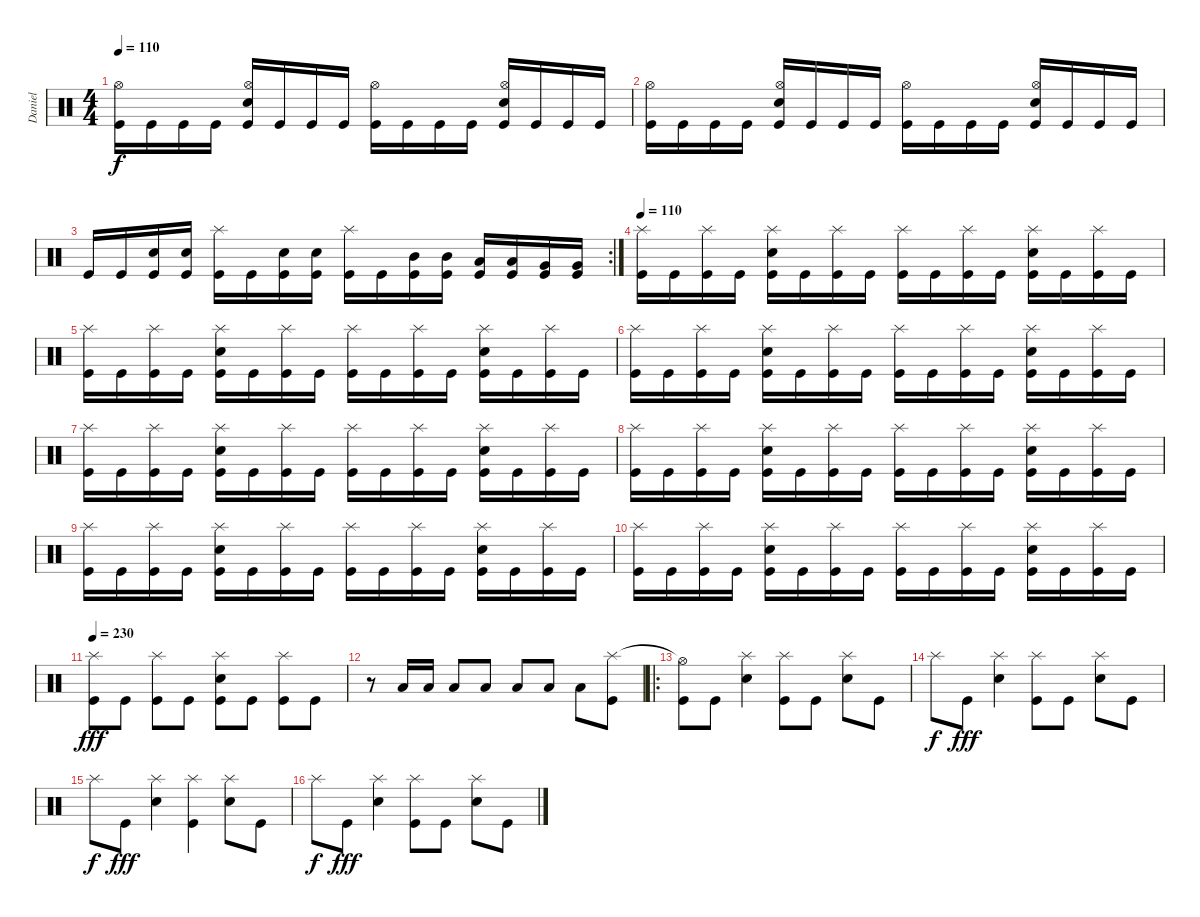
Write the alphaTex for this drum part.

\track ("Daniel" "Daniel") {instrument percussion}
\staff {score}
\articulation defaults
\ts (4 4)
\tempo 110
\clef neutral
\ks c
("Kick (hit)" "Hi-Hat (open)").16{dy f} "Kick (hit)".16 "Kick (hit)".16 "Kick (hit)".16 ("Kick (hit)" "Electric Snare (hit)" "Hi-Hat (open)").16 "Kick (hit)".16 "Kick (hit)".16 "Kick (hit)".16 ("Kick (hit)" "Hi-Hat (open)").16 "Kick (hit)".16 "Kick (hit)".16 "Kick (hit)".16 ("Kick (hit)" "Electric Snare (hit)" "Hi-Hat (open)").16 "Kick (hit)".16 "Kick (hit)".16 "Kick (hit)".16 |
("Kick (hit)" "Hi-Hat (open)").16 "Kick (hit)".16 "Kick (hit)".16 "Kick (hit)".16 ("Kick (hit)" "Electric Snare (hit)" "Hi-Hat (open)").16 "Kick (hit)".16 "Kick (hit)".16 "Kick (hit)".16 ("Kick (hit)" "Hi-Hat (open)").16 "Kick (hit)".16 "Kick (hit)".16 "Kick (hit)".16 ("Kick (hit)" "Electric Snare (hit)" "Hi-Hat (open)").16 "Kick (hit)".16 "Kick (hit)".16 "Kick (hit)".16 |
\rc 2 "Kick (hit)".16 "Kick (hit)".16
("Kick (hit)" "Electric Snare (hit)").16 ("Kick (hit)" "Electric Snare (hit)").16 ("Kick (hit)" "Splash (hit)").16 "Kick (hit)".16 ("Kick (hit)" "Electric Snare (hit)").16 ("Kick (hit)" "Electric Snare (hit)").16 ("Kick (hit)" "Splash (hit)").16 "Kick (hit)".16 ("Kick (hit)" "Mid Tom (hit)").16 ("Kick (hit)" "Mid Tom (hit)").16 ("Kick (hit)" "Low Tom (hit)").16 ("Kick (hit)" "Low Tom (hit)").16 ("Kick (hit)" "Very Low Tom (hit)").16 ("Kick (hit)" "Very Low Tom (hit)").16 |
\tempo 110
("Kick (hit)" "Splash (hit)").16 "Kick (hit)".16 ("Kick (hit)" "Splash (hit)").16 "Kick (hit)".16 ("Kick (hit)" "Splash (hit)" "Electric Snare (hit)").16 "Kick (hit)".16 ("Kick (hit)" "Splash (hit)").16 "Kick (hit)".16 ("Kick (hit)" "Splash (hit)").16 "Kick (hit)".16 ("Kick (hit)" "Splash (hit)").16 "Kick (hit)".16 ("Kick (hit)" "Splash (hit)" "Electric Snare (hit)").16 "Kick (hit)".16 ("Kick (hit)" "Splash (hit)").16 "Kick (hit)".16 |
("Kick (hit)" "Splash (hit)").16 "Kick (hit)".16 ("Kick (hit)" "Splash (hit)").16 "Kick (hit)".16 ("Kick (hit)" "Splash (hit)" "Electric Snare (hit)").16 "Kick (hit)".16 ("Kick (hit)" "Splash (hit)").16 "Kick (hit)".16 ("Kick (hit)" "Splash (hit)").16 "Kick (hit)".16 ("Kick (hit)" "Splash (hit)").16 "Kick (hit)".16 ("Kick (hit)" "Splash (hit)" "Electric Snare (hit)").16 "Kick (hit)".16 ("Kick (hit)" "Splash (hit)").16 "Kick (hit)".16 |
("Kick (hit)" "Splash (hit)").16 "Kick (hit)".16 ("Kick (hit)" "Splash (hit)").16 "Kick (hit)".16 ("Kick (hit)" "Splash (hit)" "Electric Snare (hit)").16 "Kick (hit)".16 ("Kick (hit)" "Splash (hit)").16 "Kick (hit)".16 ("Kick (hit)" "Splash (hit)").16 "Kick (hit)".16 ("Kick (hit)" "Splash (hit)").16 "Kick (hit)".16 ("Kick (hit)" "Splash (hit)" "Electric Snare (hit)").16 "Kick (hit)".16 ("Kick (hit)" "Splash (hit)").16 "Kick (hit)".16 |
("Kick (hit)" "Splash (hit)").16 "Kick (hit)".16 ("Kick (hit)" "Splash (hit)").16 "Kick (hit)".16 ("Kick (hit)" "Splash (hit)" "Electric Snare (hit)").16 "Kick (hit)".16 ("Kick (hit)" "Splash (hit)").16 "Kick (hit)".16 ("Kick (hit)" "Splash (hit)").16 "Kick (hit)".16 ("Kick (hit)" "Splash (hit)").16 "Kick (hit)".16 ("Kick (hit)" "Splash (hit)" "Electric Snare (hit)").16 "Kick (hit)".16 ("Kick (hit)" "Splash (hit)").16 "Kick (hit)".16 |
("Kick (hit)" "Splash (hit)").16 "Kick (hit)".16 ("Kick (hit)" "Splash (hit)").16 "Kick (hit)".16 ("Kick (hit)" "Splash (hit)" "Electric Snare (hit)").16 "Kick (hit)".16 ("Kick (hit)" "Splash (hit)").16 "Kick (hit)".16 ("Kick (hit)" "Splash (hit)").16 "Kick (hit)".16 ("Kick (hit)" "Splash (hit)").16 "Kick (hit)".16 ("Kick (hit)" "Splash (hit)" "Electric Snare (hit)").16 "Kick (hit)".16 ("Kick (hit)" "Splash (hit)").16 "Kick (hit)".16 |
("Kick (hit)" "Splash (hit)").16 "Kick (hit)".16 ("Kick (hit)" "Splash (hit)").16 "Kick (hit)".16 ("Kick (hit)" "Splash (hit)" "Electric Snare (hit)").16 "Kick (hit)".16 ("Kick (hit)" "Splash (hit)").16 "Kick (hit)".16 ("Kick (hit)" "Splash (hit)").16 "Kick (hit)".16 ("Kick (hit)" "Splash (hit)").16 "Kick (hit)".16 ("Kick (hit)" "Splash (hit)" "Electric Snare (hit)").16 "Kick (hit)".16 ("Kick (hit)" "Splash (hit)").16 "Kick (hit)".16 |
("Kick (hit)" "Splash (hit)").16 "Kick (hit)".16 ("Kick (hit)" "Splash (hit)").16 "Kick (hit)".16 ("Kick (hit)" "Splash (hit)" "Electric Snare (hit)").16 "Kick (hit)".16 ("Kick (hit)" "Splash (hit)").16 "Kick (hit)".16 ("Kick (hit)" "Splash (hit)").16 "Kick (hit)".16 ("Kick (hit)" "Splash (hit)").16 "Kick (hit)".16 ("Kick (hit)" "Splash (hit)" "Electric Snare (hit)").16 "Kick (hit)".16 ("Kick (hit)" "Splash (hit)").16 "Kick (hit)".16 |
\tempo 230
("Kick (hit)" "Splash (hit)").8{dy fff} "Kick (hit)".8 ("Kick (hit)" "Splash (hit)").8 "Kick (hit)".8 ("Kick (hit)" "Electric Snare (hit)" "Splash (hit)").8 "Kick (hit)".8 ("Kick (hit)" "Splash (hit)").8 "Kick (hit)".8 |
r.8 "Low Tom (hit)".16 "Low Tom (hit)".16 "Low Tom (hit)".8 "Low Tom (hit)".8 "Low Tom (hit)".8 "Low Floor Tom (hit)".8 "Low Floor Tom (hit)".8 ("Kick (hit)" "Splash (hit)").8 |
\ro
("Kick (hit)" "Hi-Hat (open)"{t}).8 "Kick (hit)".8 ("Electric Snare (hit)" "Splash (hit)").4 ("Kick (hit)" "Splash (hit)").8 "Kick (hit)".8 ("Electric Snare (hit)" "Splash (hit)").8 "Kick (hit)".8 |
"Splash (hit)".8{dy f} "Kick (hit)".8{dy fff} ("Electric Snare (hit)" "Splash (hit)").4 ("Kick (hit)" "Splash (hit)").8 "Kick (hit)".8 ("Electric Snare (hit)" "Splash (hit)").8 "Kick (hit)".8 |
"Splash (hit)".8{dy f} "Kick (hit)".8{dy fff} ("Electric Snare (hit)" "Splash (hit)").4 ("Kick (hit)" "Splash (hit)").4 ("Electric Snare (hit)" "Splash (hit)").8 "Kick (hit)".8 |
"Splash (hit)".8{dy f} "Kick (hit)".8{dy fff} ("Electric Snare (hit)" "Splash (hit)").4 ("Kick (hit)" "Splash (hit)").8 "Kick (hit)".8 ("Electric Snare (hit)" "Splash (hit)").8 "Kick (hit)".8
